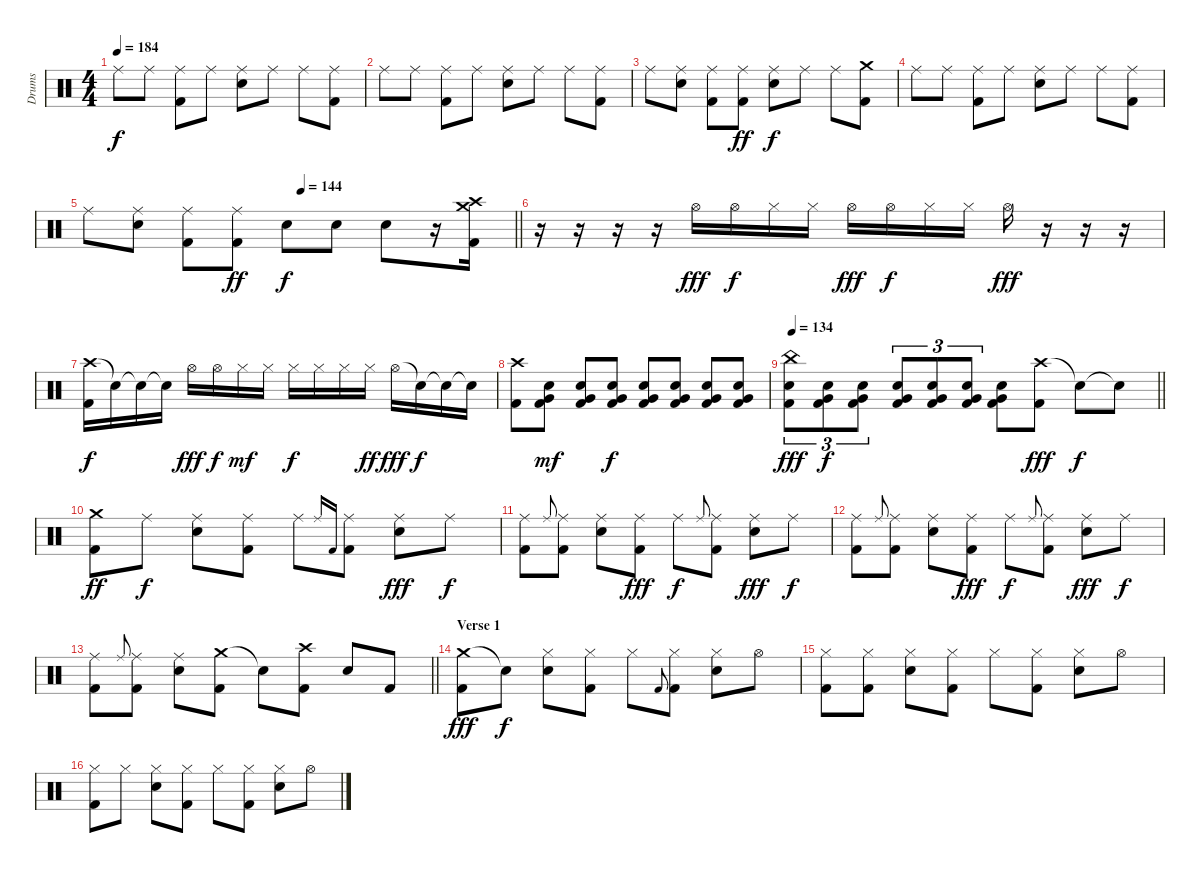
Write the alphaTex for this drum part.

\track ("Drums" "Drums") {instrument percussion}
\staff {score}
\articulation defaults
\ts (4 4)
\tempo 184
\clef neutral
\ks c "Ride (middle)".8{dy f} "Ride (middle)".8
("Ride (middle)" "Kick (hit) 2").8 "Ride (middle)".8 ("Ride (middle)" "Snare (hit) 2").8 "Ride (middle)".8 "Ride (middle)".8 ("Ride (middle)" "Kick (hit) 2").8 |
"Ride (middle)".8 "Ride (middle)".8 ("Ride (middle)" "Kick (hit) 2").8 "Ride (middle)".8 ("Ride (middle)" "Snare (hit) 2").8 "Ride (middle)".8 "Ride (middle)".8 ("Ride (middle)" "Kick (hit) 2").8 |
"Ride (middle)".8 ("Ride (middle)" "Snare (hit) 2").8 ("Ride (middle)" "Kick (hit) 2").8 ("Ride (middle)" "Kick (hit) 2").8{dy ff} ("Ride (middle)" "Snare (hit) 2").8{dy f} "Ride (middle)".8 "Ride (middle)".8 ("Crash medium (hit)" "Kick (hit) 2").8 |
"Ride (middle)".8 "Ride (middle)".8 ("Ride (middle)" "Kick (hit) 2").8 "Ride (middle)".8 ("Ride (middle)" "Snare (hit) 2").8 "Ride (middle)".8 "Ride (middle)".8 ("Ride (middle)" "Kick (hit) 2").8 |
\tempo (144 0.5)
\barLineRight lightlight "Ride (middle)".8
("Ride (middle)" "Snare (hit) 2").8 ("Ride (middle)" "Kick (hit) 2").8 ("Ride (middle)" "Kick (hit) 2").8{dy ff} "Snare (hit) 2".8{dy f} "Snare (hit) 2".8 "Snare (hit) 2".8 r.16 ("Crash high (hit)" "Crash medium (hit)" "Kick (hit) 2").16 |
r.16 r.16 r.16 r.16 "Hi-Hat (open)".16{dy fff} "Hi-Hat (open)".16{dy f} "Hi-Hat (closed)".16 "Hi-Hat (closed)".16 "Hi-Hat (open)".16{dy fff} "Hi-Hat (open)".16{dy f} "Hi-Hat (closed)".16 "Hi-Hat (closed)".16 "Hi-Hat (open)".16{dy fff} r.16 r.16 r.16 |
("Crash high (hit)" "Kick (hit) 2").16{dy f} "Snare (hit)"{t}.16 "Snare (hit)"{t}.16 "Snare (hit)"{t}.16 "Hi-Hat (open)".16{dy fff} "Hi-Hat (open)".16{dy f} "Hi-Hat (closed)".16{dy mf} "Hi-Hat (closed)".16 "Hi-Hat (closed)".16{dy f} "Hi-Hat (closed)".16 "Hi-Hat (closed)".16 "Hi-Hat (closed)".16{dy ff} "Hi-Hat (open)".16{dy fff} "Snare (hit)"{t}.16{dy f} "Snare (hit)"{t}.16 "Snare (hit)"{t}.16 |
("Crash high (hit)" "Kick (hit) 2").8 ("Snare (hit) 2" "Very Low Tom (hit)" "Kick (hit) 2").8{dy mf} ("Snare (hit) 2" "Very Low Tom (hit)" "Kick (hit) 2").8 ("Snare (hit) 2" "Very Low Tom (hit)" "Kick (hit) 2").8{dy f} ("Snare (hit) 2" "Very Low Tom (hit)" "Kick (hit) 2").8 ("Snare (hit) 2" "Very Low Tom (hit)" "Kick (hit) 2").8 ("Snare (hit) 2" "Very Low Tom (hit)" "Kick (hit) 2").8 ("Snare (hit) 2" "Very Low Tom (hit)" "Kick (hit) 2").8 |
\tempo 134
\barLineRight lightlight
("China (hit)" "Snare (hit) 2" "Kick (hit) 2").8{tu (3 2) dy fff} ("Snare (hit) 2" "Very Low Tom (hit)" "Kick (hit) 2").8{tu (3 2) dy f} ("Snare (hit) 2" "Very Low Tom (hit)" "Kick (hit) 2").8{tu (3 2)} ("Snare (hit) 2" "Very Low Tom (hit)" "Kick (hit) 2").8{tu (3 2)} ("Snare (hit) 2" "Very Low Tom (hit)" "Kick (hit) 2").8{tu (3 2)} ("Snare (hit) 2" "Very Low Tom (hit)" "Kick (hit) 2").8{tu (3 2)} ("Snare (hit) 2" "Very Low Tom (hit)" "Kick (hit) 2").8 ("Crash high (hit)" "Kick (hit) 2").8{dy fff} "Snare (hit)"{t}.8{dy f} "Snare (hit)"{t}.8 |
("Crash medium (hit)" "Kick (hit) 2").8{dy ff} "Ride (middle)".8{dy f} ("Ride (middle)" "Snare (hit) 2").8 ("Ride (middle)" "Kick (hit) 2").8 "Ride (middle)".8 "Ride (middle)".16{gr onbeat} "Kick (hit) 2".16{gr onbeat} ("Ride (middle)" "Kick (hit) 2").8 ("Ride (middle)" "Snare (hit) 2").8{dy fff} "Ride (middle)".8{dy f} |
("Ride (middle)" "Kick (hit) 2").8 "Ride (middle)".8{gr onbeat} ("Ride (middle)" "Kick (hit) 2").8 ("Ride (middle)" "Snare (hit) 2").8 ("Ride (middle)" "Kick (hit) 2").8{dy fff} "Ride (middle)".8{dy f} "Ride (middle)".8{gr onbeat} ("Ride (middle)" "Kick (hit) 2").8 ("Ride (middle)" "Snare (hit) 2").8{dy fff} "Ride (middle)".8{dy f} |
("Ride (middle)" "Kick (hit) 2").8 "Ride (middle)".8{gr onbeat} ("Ride (middle)" "Kick (hit) 2").8 ("Ride (middle)" "Snare (hit) 2").8 ("Ride (middle)" "Kick (hit) 2").8{dy fff} "Ride (middle)".8{dy f} "Ride (middle)".8{gr onbeat} ("Ride (middle)" "Kick (hit) 2").8 ("Ride (middle)" "Snare (hit) 2").8{dy fff} "Ride (middle)".8{dy f} |
\barLineRight lightlight
("Ride (middle)" "Kick (hit) 2").8 "Ride (middle)".8{gr onbeat} ("Ride (middle)" "Kick (hit) 2").8 ("Ride (middle)" "Snare (hit) 2").8 ("Crash medium (hit)" "Kick (hit) 2").8 "Snare (hit)"{t}.8 ("Crash high (hit)" "Kick (hit) 2").8 "Snare (hit) 2".8 "Kick (hit) 2".8 |
\section ("" "Verse 1")
("Crash medium (hit)" "Kick (hit) 2").8{dy fff volume 16 balance 8} "Snare (hit)"{t}.8{dy f} ("Hi-Hat (closed)" "Snare (hit) 2").8 ("Hi-Hat (closed)" "Kick (hit) 2").8 "Hi-Hat (closed)".8 "Kick (hit) 2".8{gr onbeat} ("Hi-Hat (closed)" "Kick (hit) 2").8 ("Hi-Hat (closed)" "Snare (hit) 2").8 "Hi-Hat (open)".8 |
("Hi-Hat (closed)" "Kick (hit) 2").8 ("Hi-Hat (closed)" "Kick (hit) 2").8 ("Hi-Hat (closed)" "Snare (hit) 2").8 ("Hi-Hat (closed)" "Kick (hit) 2").8 "Hi-Hat (closed)".8 ("Hi-Hat (closed)" "Kick (hit) 2").8 ("Hi-Hat (closed)" "Snare (hit) 2").8 "Hi-Hat (open)".8 |
("Hi-Hat (closed)" "Kick (hit) 2").8 "Hi-Hat (closed)".8 ("Hi-Hat (closed)" "Snare (hit) 2").8 ("Hi-Hat (closed)" "Kick (hit) 2").8 "Hi-Hat (closed)".8 ("Hi-Hat (closed)" "Kick (hit) 2").8 ("Hi-Hat (closed)" "Snare (hit) 2").8 "Hi-Hat (open)".8
